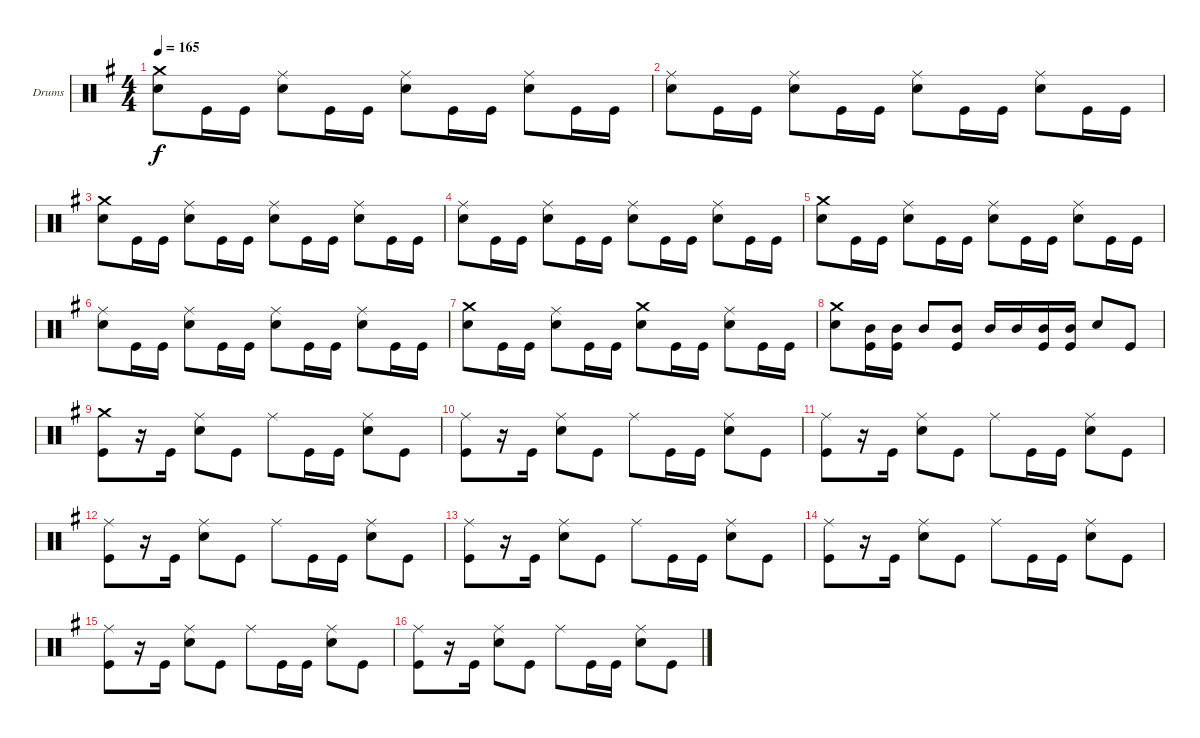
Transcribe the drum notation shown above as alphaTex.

\bracketExtendMode groupsimilarinstruments
\firstSystemTrackNameOrientation horizontal
\otherSystemsTrackNameOrientation horizontal
\track ("Александр Манякин" "Drums") {instrument percussion}
\staff {score}
\articulation defaults
\ts (4 4)
\tempo 165
\clef neutral
\ks eminor
("Snare (hit) 2" "Crash medium (hit)").8{dy f} "Kick (hit)".16 "Kick (hit)".16 ("Snare (hit) 2" "Ride (middle)").8 "Kick (hit)".16 "Kick (hit)".16 ("Snare (hit) 2" "Ride (middle)").8 "Kick (hit)".16 "Kick (hit)".16 ("Snare (hit) 2" "Ride (middle)").8 "Kick (hit)".16 "Kick (hit)".16 |
("Snare (hit) 2" "Ride (middle)").8 "Kick (hit)".16 "Kick (hit)".16 ("Snare (hit) 2" "Ride (middle)").8 "Kick (hit)".16 "Kick (hit)".16 ("Snare (hit) 2" "Ride (middle)").8 "Kick (hit)".16 "Kick (hit)".16 ("Snare (hit) 2" "Ride (middle)").8 "Kick (hit)".16 "Kick (hit)".16 |
("Snare (hit) 2" "Crash medium (hit)").8 "Kick (hit)".16 "Kick (hit)".16 ("Snare (hit) 2" "Ride (middle)").8 "Kick (hit)".16 "Kick (hit)".16 ("Snare (hit) 2" "Ride (middle)").8 "Kick (hit)".16 "Kick (hit)".16 ("Snare (hit) 2" "Ride (middle)").8 "Kick (hit)".16 "Kick (hit)".16 |
("Snare (hit) 2" "Ride (middle)").8 "Kick (hit)".16 "Kick (hit)".16 ("Snare (hit) 2" "Ride (middle)").8 "Kick (hit)".16 "Kick (hit)".16 ("Snare (hit) 2" "Ride (middle)").8 "Kick (hit)".16 "Kick (hit)".16 ("Snare (hit) 2" "Ride (middle)").8 "Kick (hit)".16 "Kick (hit)".16 |
("Snare (hit) 2" "Crash medium (hit)").8 "Kick (hit)".16 "Kick (hit)".16 ("Snare (hit) 2" "Ride (middle)").8 "Kick (hit)".16 "Kick (hit)".16 ("Snare (hit) 2" "Ride (middle)").8 "Kick (hit)".16 "Kick (hit)".16 ("Snare (hit) 2" "Ride (middle)").8 "Kick (hit)".16 "Kick (hit)".16 |
("Snare (hit) 2" "Ride (middle)").8 "Kick (hit)".16 "Kick (hit)".16 ("Snare (hit) 2" "Ride (middle)").8 "Kick (hit)".16 "Kick (hit)".16 ("Snare (hit) 2" "Ride (middle)").8 "Kick (hit)".16 "Kick (hit)".16 ("Snare (hit) 2" "Ride (middle)").8 "Kick (hit)".16 "Kick (hit)".16 |
("Snare (hit) 2" "Crash medium (hit)").8 "Kick (hit)".16 "Kick (hit)".16 ("Snare (hit) 2" "Ride (middle)").8 "Kick (hit)".16 "Kick (hit)".16 ("Snare (hit) 2" "Crash medium (hit)").8 "Kick (hit)".16 "Kick (hit)".16 ("Snare (hit) 2" "Ride (middle)").8 "Kick (hit)".16 "Kick (hit)".16 |
("Snare (hit) 2" "Crash medium (hit)").8 ("Kick (hit)" "Mid Tom (hit)").16 ("Kick (hit)" "Mid Tom (hit)").16 "Mid Tom (hit)".8 ("Kick (hit)" "Mid Tom (hit)").8 "Mid Tom (hit)".16 "Mid Tom (hit)".16 ("Kick (hit)" "Mid Tom (hit)").16 ("Kick (hit)" "Mid Tom (hit)").16 "Snare (hit) 2".8 "Kick (hit)".8 |
("Kick (hit)" "Crash medium (hit)").8 r.16 "Kick (hit)".16 ("Snare (hit) 2" "Ride (middle)").8 "Kick (hit)".8 "Ride (middle)".8 "Kick (hit)".16 "Kick (hit)".16 ("Snare (hit) 2" "Ride (middle)").8 "Kick (hit)".8 |
("Kick (hit)" "Ride (middle)").8 r.16 "Kick (hit)".16 ("Snare (hit) 2" "Ride (middle)").8 "Kick (hit)".8 "Ride (middle)".8 "Kick (hit)".16 "Kick (hit)".16 ("Snare (hit) 2" "Ride (middle)").8 "Kick (hit)".8 |
("Kick (hit)" "Ride (middle)").8 r.16 "Kick (hit)".16 ("Snare (hit) 2" "Ride (middle)").8 "Kick (hit)".8 "Ride (middle)".8 "Kick (hit)".16 "Kick (hit)".16 ("Snare (hit) 2" "Ride (middle)").8 "Kick (hit)".8 |
("Kick (hit)" "Ride (middle)").8 r.16 "Kick (hit)".16 ("Snare (hit) 2" "Ride (middle)").8 "Kick (hit)".8 "Ride (middle)".8 "Kick (hit)".16 "Kick (hit)".16 ("Snare (hit) 2" "Ride (middle)").8 "Kick (hit)".8 |
("Kick (hit)" "Ride (middle)").8 r.16 "Kick (hit)".16 ("Snare (hit) 2" "Ride (middle)").8 "Kick (hit)".8 "Ride (middle)".8 "Kick (hit)".16 "Kick (hit)".16 ("Snare (hit) 2" "Ride (middle)").8 "Kick (hit)".8 |
("Kick (hit)" "Ride (middle)").8 r.16 "Kick (hit)".16 ("Snare (hit) 2" "Ride (middle)").8 "Kick (hit)".8 "Ride (middle)".8 "Kick (hit)".16 "Kick (hit)".16 ("Snare (hit) 2" "Ride (middle)").8 "Kick (hit)".8 |
("Kick (hit)" "Ride (middle)").8 r.16 "Kick (hit)".16 ("Snare (hit) 2" "Ride (middle)").8 "Kick (hit)".8 "Ride (middle)".8 "Kick (hit)".16 "Kick (hit)".16 ("Snare (hit) 2" "Ride (middle)").8 "Kick (hit)".8 |
("Kick (hit)" "Ride (middle)").8 r.16 "Kick (hit)".16 ("Snare (hit) 2" "Ride (middle)").8 "Kick (hit)".8 "Ride (middle)".8 "Kick (hit)".16 "Kick (hit)".16 ("Snare (hit) 2" "Ride (middle)").8 "Kick (hit)".8
